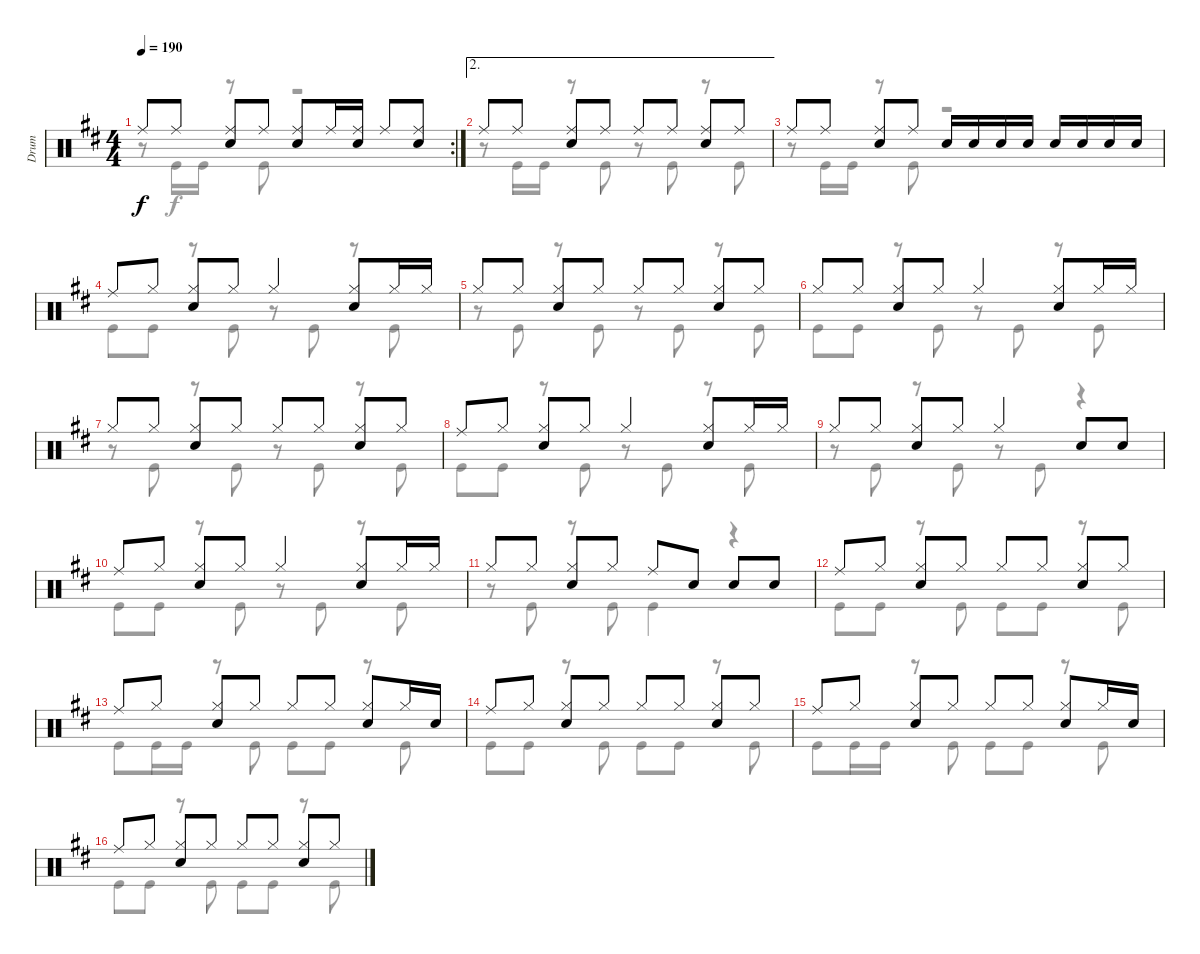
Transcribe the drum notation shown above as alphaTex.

\track ("Drum" "Drum") {instrument percussion}
\staff {score}
\articulation defaults
\voice
\rc 2
\ts (4 4)
\tempo 190
\clef neutral
\ks d "Ride (middle)".8{dy f} "Ride (middle)".8
("Ride (middle)" "Snare (hit) 2").8 "Ride (middle)".8 ("Ride (middle)" "Snare (hit) 2").8 "Ride (middle)".16 ("Ride (middle)" "Snare (hit) 2").16 "Ride (middle)".8 ("Ride (middle)" "Snare (hit) 2").8 |
\ae 2 "Ride (middle)".8 "Ride (middle)".8
("Ride (middle)" "Snare (hit) 2").8 "Ride (middle)".8 "Ride (middle)".8 "Ride (middle)".8 ("Ride (middle)" "Snare (hit) 2").8 "Ride (middle)".8 |
"Ride (middle)".8 "Ride (middle)".8 ("Ride (middle)" "Snare (hit) 2").8 "Ride (middle)".8 "Snare (hit) 2".16 "Snare (hit) 2".16 "Snare (hit) 2".16 "Snare (hit) 2".16 "Snare (hit) 2".16 "Snare (hit) 2".16 "Snare (hit) 2".16 "Snare (hit) 2".16 |
"Ride (middle)".8 "Hi-Hat (closed)".8 ("Hi-Hat (closed)" "Snare (hit) 2").8 "Hi-Hat (closed)".8 "Hi-Hat (closed)".4 ("Hi-Hat (closed)" "Snare (hit) 2").8 "Hi-Hat (closed)".16 "Hi-Hat (closed)".16 |
"Hi-Hat (closed)".8 "Hi-Hat (closed)".8 ("Hi-Hat (closed)" "Snare (hit) 2").8 "Hi-Hat (closed)".8 "Hi-Hat (closed)".8 "Hi-Hat (closed)".8 ("Hi-Hat (closed)" "Snare (hit) 2").8 "Hi-Hat (closed)".8 |
"Hi-Hat (closed)".8 "Hi-Hat (closed)".8 ("Hi-Hat (closed)" "Snare (hit) 2").8 "Hi-Hat (closed)".8 "Hi-Hat (closed)".4 ("Hi-Hat (closed)" "Snare (hit) 2").8 "Hi-Hat (closed)".16 "Hi-Hat (closed)".16 |
"Hi-Hat (closed)".8 "Hi-Hat (closed)".8 ("Hi-Hat (closed)" "Snare (hit) 2").8 "Hi-Hat (closed)".8 "Hi-Hat (closed)".8 "Hi-Hat (closed)".8 ("Hi-Hat (closed)" "Snare (hit) 2").8 "Hi-Hat (closed)".8 |
"Ride (middle)".8 "Hi-Hat (closed)".8 ("Hi-Hat (closed)" "Snare (hit) 2").8 "Hi-Hat (closed)".8 "Hi-Hat (closed)".4 ("Hi-Hat (closed)" "Snare (hit) 2").8 "Hi-Hat (closed)".16 "Hi-Hat (closed)".16 |
"Hi-Hat (closed)".8 "Hi-Hat (closed)".8 ("Hi-Hat (closed)" "Snare (hit) 2").8 "Hi-Hat (closed)".8 "Hi-Hat (closed)".4 "Snare (hit) 2".8 "Snare (hit) 2".8 |
"Ride (middle)".8 "Hi-Hat (closed)".8 ("Hi-Hat (closed)" "Snare (hit) 2").8 "Hi-Hat (closed)".8 "Hi-Hat (closed)".4 ("Hi-Hat (closed)" "Snare (hit) 2").8 "Hi-Hat (closed)".16 "Hi-Hat (closed)".16 |
"Hi-Hat (closed)".8 "Hi-Hat (closed)".8 ("Hi-Hat (closed)" "Snare (hit) 2").8 "Hi-Hat (closed)".8 "Ride (middle)".8 "Snare (hit) 2".8 "Snare (hit) 2".8 "Snare (hit) 2".8 |
"Ride (middle)".8 "Hi-Hat (closed)".8 ("Hi-Hat (closed)" "Snare (hit) 2").8 "Hi-Hat (closed)".8 "Hi-Hat (closed)".8 "Hi-Hat (closed)".8 ("Hi-Hat (closed)" "Snare (hit) 2").8 "Hi-Hat (closed)".8 |
"Ride (middle)".8 "Hi-Hat (closed)".8 ("Hi-Hat (closed)" "Snare (hit) 2").8 "Hi-Hat (closed)".8 "Hi-Hat (closed)".8 "Hi-Hat (closed)".8 ("Hi-Hat (closed)" "Snare (hit) 2").8 "Hi-Hat (closed)".16 "Snare (hit) 2".16 |
"Ride (middle)".8 "Hi-Hat (closed)".8 ("Hi-Hat (closed)" "Snare (hit) 2").8 "Hi-Hat (closed)".8 "Hi-Hat (closed)".8 "Hi-Hat (closed)".8 ("Hi-Hat (closed)" "Snare (hit) 2").8 "Hi-Hat (closed)".8 |
"Ride (middle)".8 "Hi-Hat (closed)".8 ("Hi-Hat (closed)" "Snare (hit) 2").8 "Hi-Hat (closed)".8 "Hi-Hat (closed)".8 "Hi-Hat (closed)".8 ("Hi-Hat (closed)" "Snare (hit) 2").8 "Hi-Hat (closed)".16 "Snare (hit) 2".16 |
"Ride (middle)".8 "Hi-Hat (closed)".8 ("Hi-Hat (closed)" "Snare (hit) 2").8 "Hi-Hat (closed)".8 "Hi-Hat (closed)".8 "Hi-Hat (closed)".8 ("Hi-Hat (closed)" "Snare (hit) 2").8 "Hi-Hat (closed)".8
\voice
\clef neutral
\ottava regular
\simile none
\ks d
r.8{dy f} "Kick (hit)".16 "Kick (hit)".16 r.8 "Kick (hit)".8 r.2 |
r.8 "Kick (hit)".16 "Kick (hit)".16 r.8 "Kick (hit)".8 r.8 "Kick (hit)".8 r.8 "Kick (hit)".8 |
r.8 "Kick (hit)".16 "Kick (hit)".16 r.8 "Kick (hit)".8 r.2 |
"Kick (hit)".8 "Kick (hit)".8 r.8 "Kick (hit)".8 r.8 "Kick (hit)".8 r.8 "Kick (hit)".8 |
r.8 "Kick (hit)".8 r.8 "Kick (hit)".8 r.8 "Kick (hit)".8 r.8 "Kick (hit)".8 |
"Kick (hit)".8 "Kick (hit)".8 r.8 "Kick (hit)".8 r.8 "Kick (hit)".8 r.8 "Kick (hit)".8 |
r.8 "Kick (hit)".8 r.8 "Kick (hit)".8 r.8 "Kick (hit)".8 r.8 "Kick (hit)".8 |
"Kick (hit)".8 "Kick (hit)".8 r.8 "Kick (hit)".8 r.8 "Kick (hit)".8 r.8 "Kick (hit)".8 |
r.8 "Kick (hit)".8 r.8 "Kick (hit)".8 r.8 "Kick (hit)".8 r.4 |
"Kick (hit)".8 "Kick (hit)".8 r.8 "Kick (hit)".8 r.8 "Kick (hit)".8 r.8 "Kick (hit)".8 |
r.8 "Kick (hit)".8 r.8 "Kick (hit)".8 "Kick (hit)".4 r.4 |
"Kick (hit)".8 "Kick (hit)".8 r.8 "Kick (hit)".8 "Kick (hit)".8 "Kick (hit)".8 r.8 "Kick (hit)".8 |
"Kick (hit)".8 "Kick (hit)".16 "Kick (hit)".16 r.8 "Kick (hit)".8 "Kick (hit)".8 "Kick (hit)".8 r.8 "Kick (hit)".8 |
"Kick (hit)".8 "Kick (hit)".8 r.8 "Kick (hit)".8 "Kick (hit)".8 "Kick (hit)".8 r.8 "Kick (hit)".8 |
"Kick (hit)".8 "Kick (hit)".16 "Kick (hit)".16 r.8 "Kick (hit)".8 "Kick (hit)".8 "Kick (hit)".8 r.8 "Kick (hit)".8 |
"Kick (hit)".8 "Kick (hit)".8 r.8 "Kick (hit)".8 "Kick (hit)".8 "Kick (hit)".8 r.8 "Kick (hit)".8
